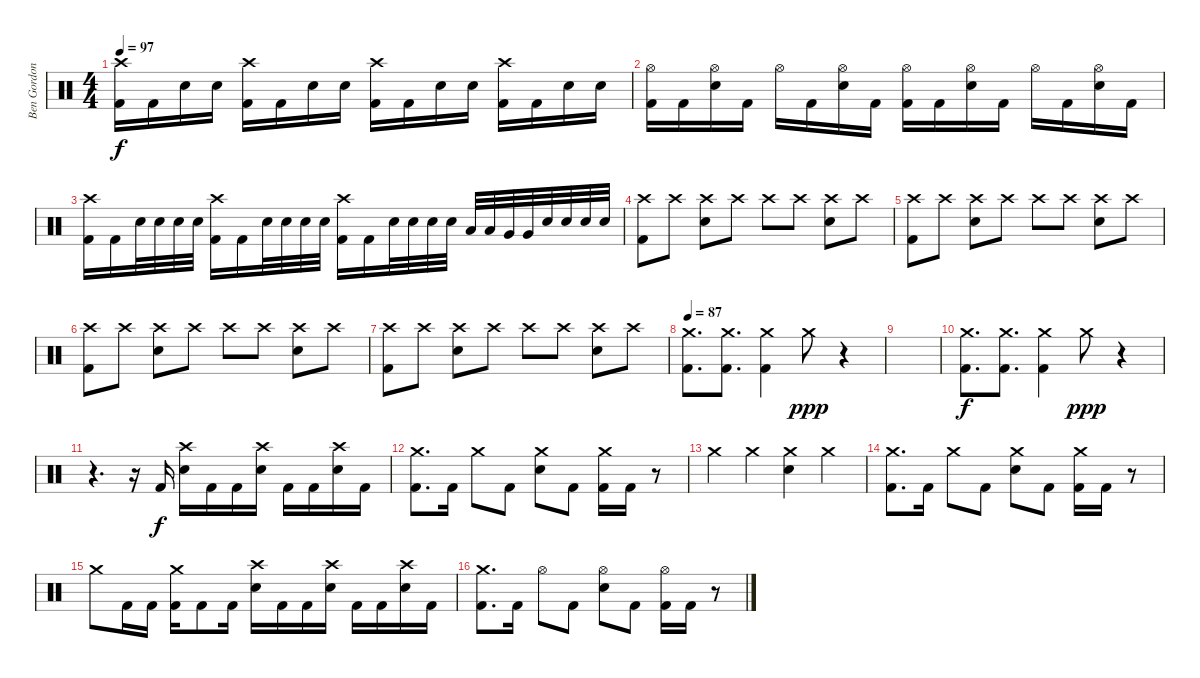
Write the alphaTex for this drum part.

\track ("Ben Gordon" "Ben Gordon") {instrument percussion}
\staff {score}
\articulation defaults
\ts (4 4)
\tempo 97
\clef neutral
\ks c
("Crash high (hit)" "Kick (hit) 2").16{dy f} "Kick (hit) 2".16 "Snare (hit) 2".16 "Snare (hit) 2".16 ("Crash high (hit)" "Kick (hit) 2").16 "Kick (hit) 2".16 "Snare (hit) 2".16 "Snare (hit) 2".16 ("Crash high (hit)" "Kick (hit) 2").16 "Kick (hit) 2".16 "Snare (hit) 2".16 "Snare (hit) 2".16 ("Crash high (hit)" "Kick (hit) 2").16 "Kick (hit) 2".16 "Snare (hit) 2".16 "Snare (hit) 2".16 |
("Hi-Hat (open)" "Kick (hit) 2").16 "Kick (hit) 2".16 ("Hi-Hat (open)" "Snare (hit) 2").16 "Kick (hit) 2".16 "Hi-Hat (open)".16 "Kick (hit) 2".16 ("Hi-Hat (open)" "Snare (hit) 2").16 "Kick (hit) 2".16 ("Hi-Hat (open)" "Kick (hit) 2").16 "Kick (hit) 2".16 ("Hi-Hat (open)" "Snare (hit) 2").16 "Kick (hit) 2".16 "Hi-Hat (open)".16 "Kick (hit) 2".16 ("Hi-Hat (open)" "Snare (hit) 2").16 "Kick (hit) 2".16 |
("Crash high (hit)" "Kick (hit) 2").16 "Kick (hit) 2".16 "Snare (hit) 2".32 "Snare (hit) 2".32 "Snare (hit) 2".32 "Snare (hit) 2".32 ("Crash high (hit)" "Kick (hit) 2").16 "Kick (hit) 2".16 "Snare (hit) 2".32 "Snare (hit) 2".32 "Snare (hit) 2".32 "Snare (hit) 2".32 ("Crash high (hit)" "Kick (hit) 2").16 "Kick (hit) 2".16 "Snare (hit) 2".32 "Snare (hit) 2".32 "Snare (hit) 2".32 "Snare (hit) 2".32 "Low Tom (hit)".32 "Low Tom (hit)".32 "Very Low Tom (hit)".32 "Very Low Tom (hit)".32 "Snare (hit) 2".32 "Snare (hit) 2".32 "Snare (hit) 2".32 "Snare (hit) 2".32 |
("Crash high (hit)" "Kick (hit) 2").8 "Crash high (hit)".8 ("Crash high (hit)" "Snare (hit) 2").8 "Crash high (hit)".8 "Crash high (hit)".8 "Crash high (hit)".8 ("Crash high (hit)" "Snare (hit) 2").8 "Crash high (hit)".8 |
("Crash high (hit)" "Kick (hit) 2").8 "Crash high (hit)".8 ("Crash high (hit)" "Snare (hit) 2").8 "Crash high (hit)".8 "Crash high (hit)".8 "Crash high (hit)".8 ("Crash high (hit)" "Snare (hit) 2").8 "Crash high (hit)".8 |
("Crash high (hit)" "Kick (hit) 2").8 "Crash high (hit)".8 ("Crash high (hit)" "Snare (hit) 2").8 "Crash high (hit)".8 "Crash high (hit)".8 "Crash high (hit)".8 ("Crash high (hit)" "Snare (hit) 2").8 "Crash high (hit)".8 |
("Crash high (hit)" "Kick (hit) 2").8 "Crash high (hit)".8 ("Crash high (hit)" "Snare (hit) 2").8 "Crash high (hit)".8 "Crash high (hit)".8 "Crash high (hit)".8 ("Crash high (hit)" "Snare (hit) 2").8 "Crash high (hit)".8 |
\tempo 87
("Crash medium (hit)" "Kick (hit) 2").8{d} ("Crash medium (hit)" "Kick (hit) 2").8{d} ("Crash medium (hit)" "Kick (hit) 2").4 "Crash medium (hit)".8{dy ppp} r.4 |
|
("Crash medium (hit)" "Kick (hit) 2").8{d dy f} ("Crash medium (hit)" "Kick (hit) 2").8{d} ("Crash medium (hit)" "Kick (hit) 2").4 "Crash medium (hit)".8{dy ppp} r.4 |
r.4{d} r.16 "Kick (hit) 2".16{dy f} ("Crash high (hit)" "Snare (hit) 2").16 "Kick (hit) 2".16 "Kick (hit) 2".16 ("Crash high (hit)" "Snare (hit) 2").16 "Kick (hit) 2".16 "Kick (hit) 2".16 ("Crash high (hit)" "Snare (hit) 2").16 "Kick (hit) 2".16 |
("Crash medium (hit)" "Kick (hit) 2").8{d} "Kick (hit) 2".16 "Crash medium (hit)".8 "Kick (hit) 2".8 ("Crash medium (hit)" "Snare (hit) 2").8 "Kick (hit) 2".8 ("Crash medium (hit)" "Kick (hit) 2").16 "Kick (hit) 2".16 r.8 |
"Crash medium (hit)".4 "Crash medium (hit)".4 ("Crash medium (hit)" "Snare (hit) 2").4 "Crash medium (hit)".4 |
("Crash medium (hit)" "Kick (hit) 2").8{d} "Kick (hit) 2".16 "Crash medium (hit)".8 "Kick (hit) 2".8 ("Crash medium (hit)" "Snare (hit) 2").8 "Kick (hit) 2".8 ("Crash medium (hit)" "Kick (hit) 2").16 "Kick (hit) 2".16 r.8 |
"Crash medium (hit)".8 "Kick (hit) 2".16 "Kick (hit) 2".16 ("Crash medium (hit)" "Kick (hit) 2").16 "Kick (hit) 2".8 "Kick (hit) 2".16 ("Crash high (hit)" "Snare (hit) 2").16 "Kick (hit) 2".16 "Kick (hit) 2".16 ("Crash high (hit)" "Snare (hit) 2").16 "Kick (hit) 2".16 "Kick (hit) 2".16 ("Crash high (hit)" "Snare (hit) 2").16 "Kick (hit) 2".16 |
("Crash medium (hit)" "Kick (hit) 2").8{d} "Kick (hit) 2".16 "Hi-Hat (open)".8 "Kick (hit) 2".8 ("Hi-Hat (open)" "Snare (hit) 2").8 "Kick (hit) 2".8 ("Hi-Hat (open)" "Kick (hit) 2").16 "Kick (hit) 2".16 r.8
